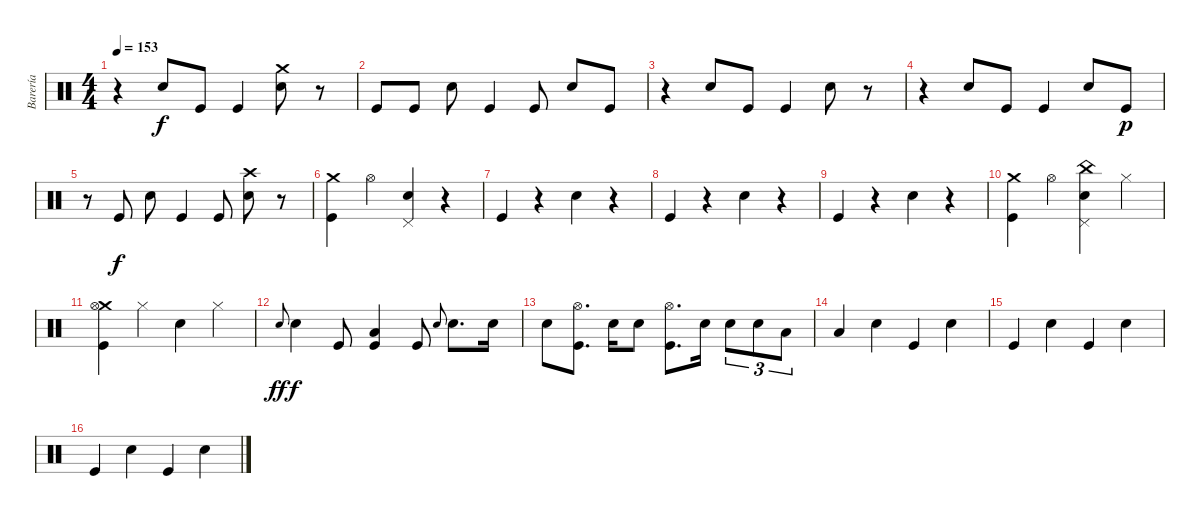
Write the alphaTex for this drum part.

\track ("Barería" "Barería") {instrument percussion}
\staff {score}
\articulation defaults
\ts (4 4)
\tempo 153
\clef neutral
\ks c
r.4{dy f} "Snare (hit) 2".8 "Kick (hit)".8 "Kick (hit)".4 ("Crash medium (hit)" "Snare (hit) 2").8 r.8 |
"Kick (hit)".8 "Kick (hit)".8 "Snare (hit) 2".8 "Kick (hit)".4 "Kick (hit)".8 "Snare (hit) 2".8 "Kick (hit)".8 |
r.4 "Snare (hit) 2".8 "Kick (hit)".8 "Kick (hit)".4 "Snare (hit) 2".8 r.8 |
r.4 "Snare (hit) 2".8 "Kick (hit)".8 "Kick (hit)".4 "Snare (hit) 2".8 "Kick (hit)".8{dy p} |
r.8 "Kick (hit)".8{dy f} "Snare (hit) 2".8 "Kick (hit)".4 "Kick (hit)".8 ("Crash high (hit)" "Snare (hit) 2").8 r.8 |
("Crash medium (hit)" "Kick (hit)").4 "Hi-Hat (open)".4 ("Pedal Hi-Hat (hit)" "Snare (hit) 2").4 r.4 |
"Kick (hit)".4 r.4 "Snare (hit) 2".4 r.4 |
"Kick (hit)".4 r.4 "Snare (hit) 2".4 r.4 |
"Kick (hit)".4 r.4 "Snare (hit) 2".4 r.4 |
("Crash medium (hit)" "Kick (hit)").4 "Hi-Hat (open)".4 ("China (hit)" "Pedal Hi-Hat (hit)" "Snare (hit) 2").4 "Hi-Hat (closed)".4 |
("Crash medium (hit)" "Hi-Hat (open)" "Kick (hit)").4 "Hi-Hat (closed)".4 "Snare (hit) 2".4 "Hi-Hat (closed)".4 |
"Snare (hit) 2".8{gr onbeat dy ff} "Snare (hit) 2".4{dy f} "Kick (hit)".8 ("Low Tom (hit)" "Kick (hit)").4 "Kick (hit)".8 "Snare (hit) 2".8{gr onbeat} "Snare (hit) 2".8{d} "Snare (hit) 2".16 |
"Snare (hit) 2".8 ("Hi-Hat (open)" "Kick (hit)").8{d} "Snare (hit) 2".16 "Snare (hit) 2".8 ("Hi-Hat (open)" "Kick (hit)").8{d} "Snare (hit) 2".16 "Snare (hit) 2".8{tu (3 2)} "Snare (hit) 2".8{tu (3 2)} "Low Tom (hit)".8{tu (3 2)} |
"Low Floor Tom (hit)".4 "Snare (hit) 2".4 "Kick (hit)".4 "Snare (hit) 2".4 |
"Kick (hit)".4 "Snare (hit) 2".4 "Kick (hit)".4 "Snare (hit) 2".4 |
"Kick (hit)".4 "Snare (hit) 2".4 "Kick (hit)".4 "Snare (hit) 2".4
